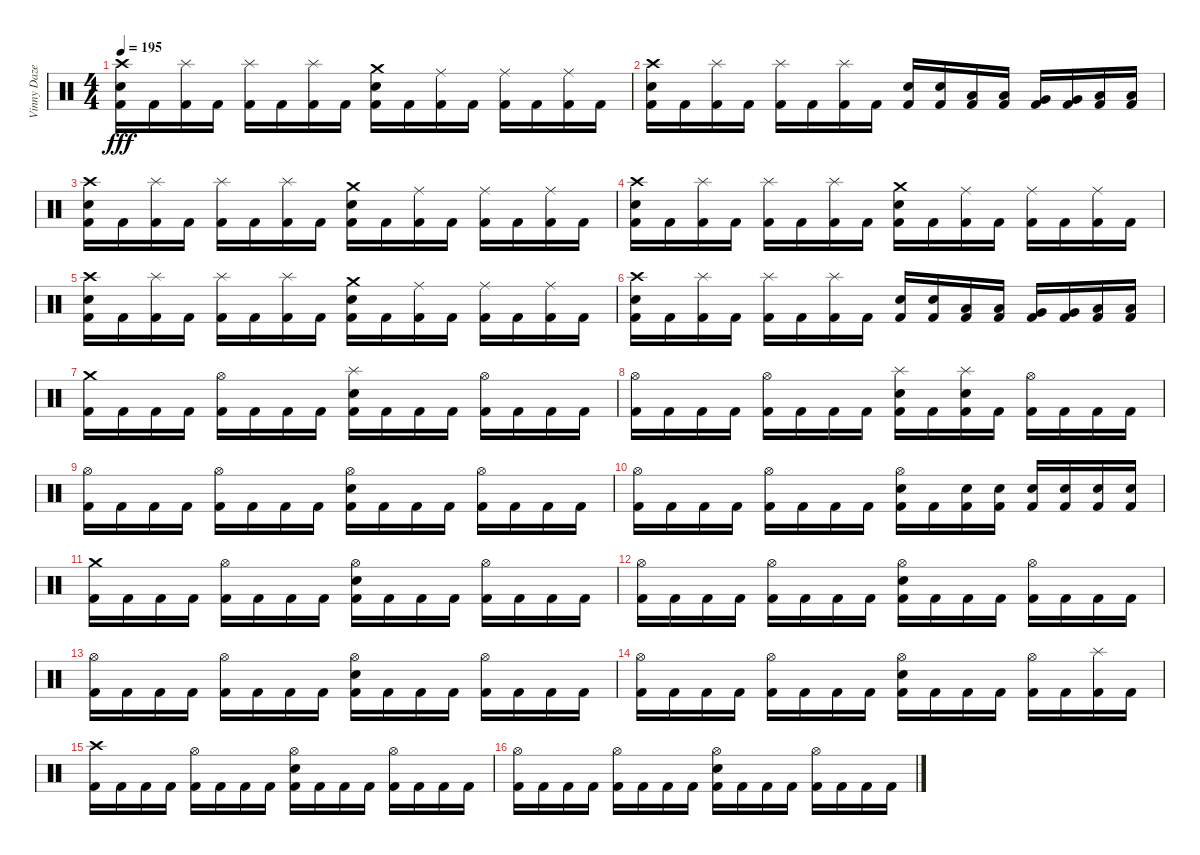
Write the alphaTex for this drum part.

\track ("Vinny Daze (R.I.P.)" "Vinny Daze") {instrument percussion}
\staff {score}
\articulation defaults
\ts (4 4)
\tempo 195
\clef neutral
\ks c
("Crash high (hit)" "Electric Snare (hit)" "Kick (hit) 2").16{dy fff} "Kick (hit) 2".16 ("Splash (hit)" "Kick (hit) 2").16 "Kick (hit) 2".16 ("Splash (hit)" "Kick (hit) 2").16 "Kick (hit) 2".16 ("Splash (hit)" "Kick (hit) 2").16 "Kick (hit) 2".16 ("Crash medium (hit)" "Electric Snare (hit)" "Kick (hit) 2").16 "Kick (hit) 2".16 ("Ride (middle)" "Kick (hit) 2").16 "Kick (hit) 2".16 ("Ride (middle)" "Kick (hit) 2").16 "Kick (hit) 2".16 ("Ride (middle)" "Kick (hit) 2").16 "Kick (hit) 2".16 |
("Crash high (hit)" "Electric Snare (hit)" "Kick (hit) 2").16 "Kick (hit) 2".16 ("Splash (hit)" "Kick (hit) 2").16 "Kick (hit) 2".16 ("Splash (hit)" "Kick (hit) 2").16 "Kick (hit) 2".16 ("Splash (hit)" "Kick (hit) 2").16 "Kick (hit) 2".16 ("Electric Snare (hit)" "Kick (hit) 2").16 ("Electric Snare (hit)" "Kick (hit) 2").16 ("Low Tom (hit)" "Kick (hit) 2").16 ("Low Tom (hit)" "Kick (hit) 2").16 ("Very Low Tom (hit)" "Kick (hit) 2").16 ("Very Low Tom (hit)" "Kick (hit) 2").16 ("Low Floor Tom (hit)" "Kick (hit) 2").16 ("Low Floor Tom (hit)" "Kick (hit) 2").16 |
("Crash high (hit)" "Electric Snare (hit)" "Kick (hit) 2").16 "Kick (hit) 2".16 ("Splash (hit)" "Kick (hit) 2").16 "Kick (hit) 2".16 ("Splash (hit)" "Kick (hit) 2").16 "Kick (hit) 2".16 ("Splash (hit)" "Kick (hit) 2").16 "Kick (hit) 2".16 ("Crash medium (hit)" "Electric Snare (hit)" "Kick (hit) 2").16 "Kick (hit) 2".16 ("Ride (middle)" "Kick (hit) 2").16 "Kick (hit) 2".16 ("Ride (middle)" "Kick (hit) 2").16 "Kick (hit) 2".16 ("Ride (middle)" "Kick (hit) 2").16 "Kick (hit) 2".16 |
("Crash high (hit)" "Electric Snare (hit)" "Kick (hit) 2").16 "Kick (hit) 2".16 ("Splash (hit)" "Kick (hit) 2").16 "Kick (hit) 2".16 ("Splash (hit)" "Kick (hit) 2").16 "Kick (hit) 2".16 ("Splash (hit)" "Kick (hit) 2").16 "Kick (hit) 2".16 ("Crash medium (hit)" "Electric Snare (hit)" "Kick (hit) 2").16 "Kick (hit) 2".16 ("Ride (middle)" "Kick (hit) 2").16 "Kick (hit) 2".16 ("Ride (middle)" "Kick (hit) 2").16 "Kick (hit) 2".16 ("Ride (middle)" "Kick (hit) 2").16 "Kick (hit) 2".16 |
("Crash high (hit)" "Electric Snare (hit)" "Kick (hit) 2").16 "Kick (hit) 2".16 ("Splash (hit)" "Kick (hit) 2").16 "Kick (hit) 2".16 ("Splash (hit)" "Kick (hit) 2").16 "Kick (hit) 2".16 ("Splash (hit)" "Kick (hit) 2").16 "Kick (hit) 2".16 ("Crash medium (hit)" "Electric Snare (hit)" "Kick (hit) 2").16 "Kick (hit) 2".16 ("Ride (middle)" "Kick (hit) 2").16 "Kick (hit) 2".16 ("Ride (middle)" "Kick (hit) 2").16 "Kick (hit) 2".16 ("Ride (middle)" "Kick (hit) 2").16 "Kick (hit) 2".16 |
("Crash high (hit)" "Electric Snare (hit)" "Kick (hit) 2").16 "Kick (hit) 2".16 ("Splash (hit)" "Kick (hit) 2").16 "Kick (hit) 2".16 ("Splash (hit)" "Kick (hit) 2").16 "Kick (hit) 2".16 ("Splash (hit)" "Kick (hit) 2").16 "Kick (hit) 2".16 ("Electric Snare (hit)" "Kick (hit) 2").16 ("Electric Snare (hit)" "Kick (hit) 2").16 ("Low Tom (hit)" "Kick (hit) 2").16 ("Low Tom (hit)" "Kick (hit) 2").16 ("Very Low Tom (hit)" "Kick (hit) 2").16 ("Very Low Tom (hit)" "Kick (hit) 2").16 ("Low Floor Tom (hit)" "Kick (hit) 2").16 ("Low Floor Tom (hit)" "Kick (hit) 2").16 |
("Crash medium (hit)" "Kick (hit) 2").16 "Kick (hit) 2".16 "Kick (hit) 2".16 "Kick (hit) 2".16 ("Hi-Hat (open)" "Kick (hit) 2").16 "Kick (hit) 2".16 "Kick (hit) 2".16 "Kick (hit) 2".16 ("Splash (hit)" "Electric Snare (hit)" "Kick (hit) 2").16 "Kick (hit) 2".16 "Kick (hit) 2".16 "Kick (hit) 2".16 ("Hi-Hat (open)" "Kick (hit) 2").16 "Kick (hit) 2".16 "Kick (hit) 2".16 "Kick (hit) 2".16 |
("Hi-Hat (open)" "Kick (hit) 2").16 "Kick (hit) 2".16 "Kick (hit) 2".16 "Kick (hit) 2".16 ("Hi-Hat (open)" "Kick (hit) 2").16 "Kick (hit) 2".16 "Kick (hit) 2".16 "Kick (hit) 2".16 ("Splash (hit)" "Electric Snare (hit)" "Kick (hit) 2").16 "Kick (hit) 2".16 ("Splash (hit)" "Electric Snare (hit)" "Kick (hit) 2").16 "Kick (hit) 2".16 ("Hi-Hat (open)" "Kick (hit) 2").16 "Kick (hit) 2".16 "Kick (hit) 2".16 "Kick (hit) 2".16 |
("Hi-Hat (open)" "Kick (hit) 2").16 "Kick (hit) 2".16 "Kick (hit) 2".16 "Kick (hit) 2".16 ("Hi-Hat (open)" "Kick (hit) 2").16 "Kick (hit) 2".16 "Kick (hit) 2".16 "Kick (hit) 2".16 ("Hi-Hat (open)" "Electric Snare (hit)" "Kick (hit) 2").16 "Kick (hit) 2".16 "Kick (hit) 2".16 "Kick (hit) 2".16 ("Hi-Hat (open)" "Kick (hit) 2").16 "Kick (hit) 2".16 "Kick (hit) 2".16 "Kick (hit) 2".16 |
("Hi-Hat (open)" "Kick (hit) 2").16 "Kick (hit) 2".16 "Kick (hit) 2".16 "Kick (hit) 2".16 ("Hi-Hat (open)" "Kick (hit) 2").16 "Kick (hit) 2".16 "Kick (hit) 2".16 "Kick (hit) 2".16 ("Hi-Hat (open)" "Electric Snare (hit)" "Kick (hit) 2").16 "Kick (hit) 2".16 ("Electric Snare (hit)" "Kick (hit) 2").16 ("Electric Snare (hit)" "Kick (hit) 2").16 ("Electric Snare (hit)" "Kick (hit) 2").16 ("Electric Snare (hit)" "Kick (hit) 2").16 ("Electric Snare (hit)" "Kick (hit) 2").16 ("Electric Snare (hit)" "Kick (hit) 2").16 |
("Crash medium (hit)" "Kick (hit) 2").16 "Kick (hit) 2".16 "Kick (hit) 2".16 "Kick (hit) 2".16 ("Hi-Hat (open)" "Kick (hit) 2").16 "Kick (hit) 2".16 "Kick (hit) 2".16 "Kick (hit) 2".16 ("Hi-Hat (open)" "Electric Snare (hit)" "Kick (hit) 2").16 "Kick (hit) 2".16 "Kick (hit) 2".16 "Kick (hit) 2".16 ("Hi-Hat (open)" "Kick (hit) 2").16 "Kick (hit) 2".16 "Kick (hit) 2".16 "Kick (hit) 2".16 |
("Hi-Hat (open)" "Kick (hit) 2").16 "Kick (hit) 2".16 "Kick (hit) 2".16 "Kick (hit) 2".16 ("Hi-Hat (open)" "Kick (hit) 2").16 "Kick (hit) 2".16 "Kick (hit) 2".16 "Kick (hit) 2".16 ("Hi-Hat (open)" "Electric Snare (hit)" "Kick (hit) 2").16 "Kick (hit) 2".16 "Kick (hit) 2".16 "Kick (hit) 2".16 ("Hi-Hat (open)" "Kick (hit) 2").16 "Kick (hit) 2".16 "Kick (hit) 2".16 "Kick (hit) 2".16 |
("Hi-Hat (open)" "Kick (hit) 2").16 "Kick (hit) 2".16 "Kick (hit) 2".16 "Kick (hit) 2".16 ("Hi-Hat (open)" "Kick (hit) 2").16 "Kick (hit) 2".16 "Kick (hit) 2".16 "Kick (hit) 2".16 ("Hi-Hat (open)" "Electric Snare (hit)" "Kick (hit) 2").16 "Kick (hit) 2".16 "Kick (hit) 2".16 "Kick (hit) 2".16 ("Hi-Hat (open)" "Kick (hit) 2").16 "Kick (hit) 2".16 "Kick (hit) 2".16 "Kick (hit) 2".16 |
("Hi-Hat (open)" "Kick (hit) 2").16 "Kick (hit) 2".16 "Kick (hit) 2".16 "Kick (hit) 2".16 ("Hi-Hat (open)" "Kick (hit) 2").16 "Kick (hit) 2".16 "Kick (hit) 2".16 "Kick (hit) 2".16 ("Hi-Hat (open)" "Electric Snare (hit)" "Kick (hit) 2").16 "Kick (hit) 2".16 "Kick (hit) 2".16 "Kick (hit) 2".16 ("Hi-Hat (open)" "Kick (hit) 2").16 "Kick (hit) 2".16 ("Splash (hit)" "Kick (hit) 2").16 "Kick (hit) 2".16 |
("Crash high (hit)" "Kick (hit) 2").16 "Kick (hit) 2".16 "Kick (hit) 2".16 "Kick (hit) 2".16 ("Hi-Hat (open)" "Kick (hit) 2").16 "Kick (hit) 2".16 "Kick (hit) 2".16 "Kick (hit) 2".16 ("Hi-Hat (open)" "Electric Snare (hit)" "Kick (hit) 2").16 "Kick (hit) 2".16 "Kick (hit) 2".16 "Kick (hit) 2".16 ("Hi-Hat (open)" "Kick (hit) 2").16 "Kick (hit) 2".16 "Kick (hit) 2".16 "Kick (hit) 2".16 |
("Hi-Hat (open)" "Kick (hit) 2").16 "Kick (hit) 2".16 "Kick (hit) 2".16 "Kick (hit) 2".16 ("Hi-Hat (open)" "Kick (hit) 2").16 "Kick (hit) 2".16 "Kick (hit) 2".16 "Kick (hit) 2".16 ("Hi-Hat (open)" "Electric Snare (hit)" "Kick (hit) 2").16 "Kick (hit) 2".16 "Kick (hit) 2".16 "Kick (hit) 2".16 ("Hi-Hat (open)" "Kick (hit) 2").16 "Kick (hit) 2".16 "Kick (hit) 2".16 "Kick (hit) 2".16
